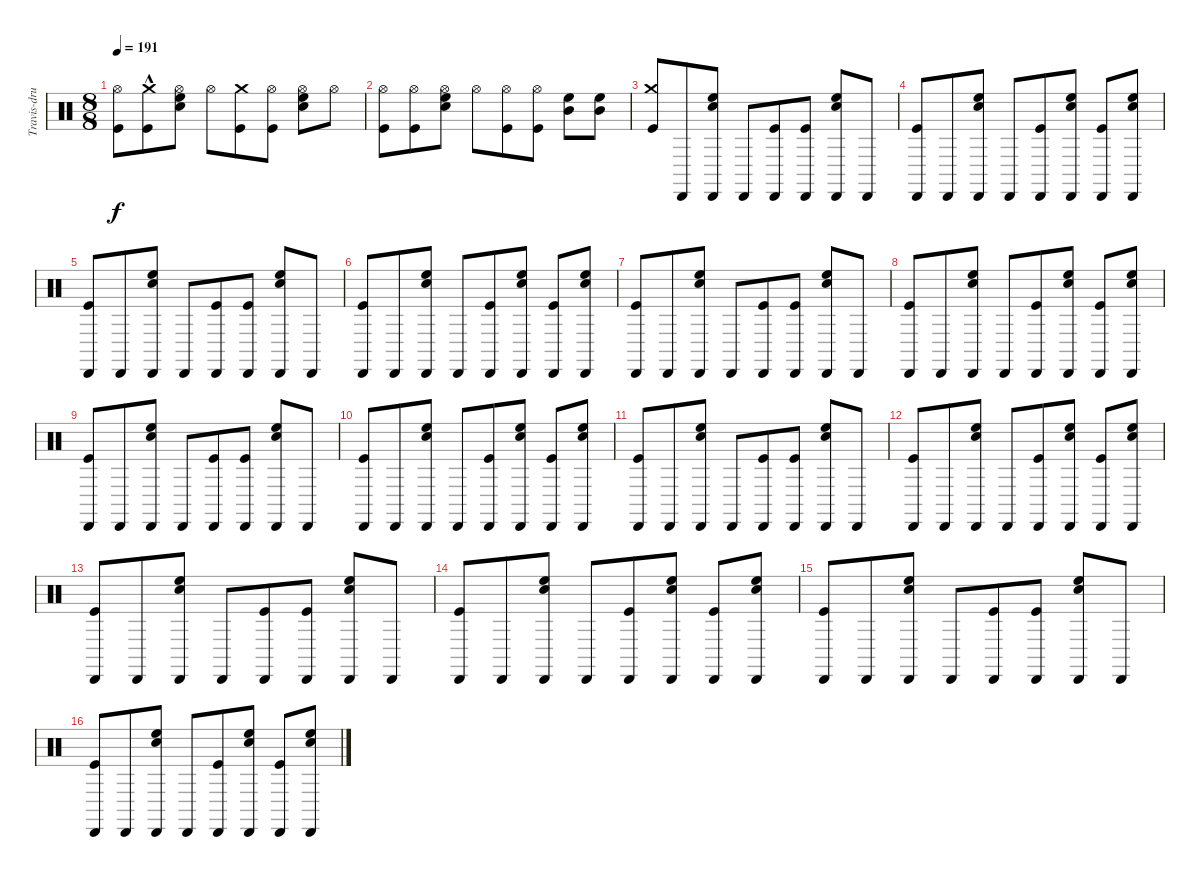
\track ("Travis-drums" "Travis-dru") {instrument percussion}
\staff {score}
\articulation defaults
\ts (8 8)
\tempo 191
\clef neutral
\ks c
("Kick (hit)" "Hi-Hat (open)").8{dy f} ("Crash medium (hit)"{hac} "Kick (hit)").8 ("High Floor Tom (hit)" "Snare (hit) 2" "Hi-Hat (open)").8 "Hi-Hat (open)".8 ("Crash medium (hit)" "Kick (hit)").8 ("Kick (hit)" "Hi-Hat (open)").8 ("High Floor Tom (hit)" "Snare (hit) 2" "Hi-Hat (open)").8 "Hi-Hat (open)".8 |
("Kick (hit)" "Hi-Hat (open)").8 ("Kick (hit)" "Hi-Hat (open)").8 ("High Floor Tom (hit)" "Snare (hit) 2" "Hi-Hat (open)").8 "Hi-Hat (open)".8 ("Kick (hit)" "Hi-Hat (open)").8 ("Kick (hit)" "Hi-Hat (open)").8 ("Mid Tom (hit)" "High Floor Tom (hit)").8 ("High Floor Tom (hit)" "Mid Tom (hit)").8 |
("Crash medium (hit)" "Kick (hit)").8 "Cabasa (hit)".8 ("High Floor Tom (hit)" "Electric Snare (hit)" "Cabasa (hit)").8 "Cabasa (hit)".8 ("Cabasa (hit)" "Kick (hit)").8 ("Kick (hit)" "Cabasa (hit)").8 ("High Floor Tom (hit)" "Electric Snare (hit)" "Cabasa (hit)").8 "Cabasa (hit)".8 |
("Cabasa (hit)" "Kick (hit)").8 "Cabasa (hit)".8 ("High Floor Tom (hit)" "Electric Snare (hit)" "Cabasa (hit)").8 "Cabasa (hit)".8 ("Kick (hit)" "Cabasa (hit)").8 ("High Floor Tom (hit)" "Electric Snare (hit)" "Cabasa (hit)").8 ("Kick (hit)" "Cabasa (hit)").8 ("High Floor Tom (hit)" "Electric Snare (hit)" "Cabasa (hit)").8 |
("Cabasa (hit)" "Kick (hit)").8 "Cabasa (hit)".8 ("High Floor Tom (hit)" "Electric Snare (hit)" "Cabasa (hit)").8 "Cabasa (hit)".8 ("Cabasa (hit)" "Kick (hit)").8 ("Kick (hit)" "Cabasa (hit)").8 ("High Floor Tom (hit)" "Electric Snare (hit)" "Cabasa (hit)").8 "Cabasa (hit)".8 |
("Cabasa (hit)" "Kick (hit)").8 "Cabasa (hit)".8 ("High Floor Tom (hit)" "Electric Snare (hit)" "Cabasa (hit)").8 "Cabasa (hit)".8 ("Kick (hit)" "Cabasa (hit)").8 ("High Floor Tom (hit)" "Electric Snare (hit)" "Cabasa (hit)").8 ("Kick (hit)" "Cabasa (hit)").8 ("High Floor Tom (hit)" "Electric Snare (hit)" "Cabasa (hit)").8 |
("Cabasa (hit)" "Kick (hit)").8 "Cabasa (hit)".8 ("High Floor Tom (hit)" "Electric Snare (hit)" "Cabasa (hit)").8 "Cabasa (hit)".8 ("Cabasa (hit)" "Kick (hit)").8 ("Kick (hit)" "Cabasa (hit)").8 ("High Floor Tom (hit)" "Electric Snare (hit)" "Cabasa (hit)").8 "Cabasa (hit)".8 |
("Cabasa (hit)" "Kick (hit)").8 "Cabasa (hit)".8 ("High Floor Tom (hit)" "Electric Snare (hit)" "Cabasa (hit)").8 "Cabasa (hit)".8 ("Kick (hit)" "Cabasa (hit)").8 ("High Floor Tom (hit)" "Electric Snare (hit)" "Cabasa (hit)").8 ("Kick (hit)" "Cabasa (hit)").8 ("High Floor Tom (hit)" "Electric Snare (hit)" "Cabasa (hit)").8 |
("Cabasa (hit)" "Kick (hit)").8 "Cabasa (hit)".8 ("High Floor Tom (hit)" "Electric Snare (hit)" "Cabasa (hit)").8 "Cabasa (hit)".8 ("Cabasa (hit)" "Kick (hit)").8 ("Kick (hit)" "Cabasa (hit)").8 ("High Floor Tom (hit)" "Electric Snare (hit)" "Cabasa (hit)").8 "Cabasa (hit)".8 |
("Cabasa (hit)" "Kick (hit)").8 "Cabasa (hit)".8 ("High Floor Tom (hit)" "Electric Snare (hit)" "Cabasa (hit)").8 "Cabasa (hit)".8 ("Kick (hit)" "Cabasa (hit)").8 ("High Floor Tom (hit)" "Electric Snare (hit)" "Cabasa (hit)").8 ("Kick (hit)" "Cabasa (hit)").8 ("High Floor Tom (hit)" "Electric Snare (hit)" "Cabasa (hit)").8 |
("Cabasa (hit)" "Kick (hit)").8 "Cabasa (hit)".8 ("High Floor Tom (hit)" "Electric Snare (hit)" "Cabasa (hit)").8 "Cabasa (hit)".8 ("Cabasa (hit)" "Kick (hit)").8 ("Kick (hit)" "Cabasa (hit)").8 ("High Floor Tom (hit)" "Electric Snare (hit)" "Cabasa (hit)").8 "Cabasa (hit)".8 |
("Cabasa (hit)" "Kick (hit)").8 "Cabasa (hit)".8 ("High Floor Tom (hit)" "Electric Snare (hit)" "Cabasa (hit)").8 "Cabasa (hit)".8 ("Kick (hit)" "Cabasa (hit)").8 ("High Floor Tom (hit)" "Electric Snare (hit)" "Cabasa (hit)").8 ("Kick (hit)" "Cabasa (hit)").8 ("High Floor Tom (hit)" "Electric Snare (hit)" "Cabasa (hit)").8 |
("Cabasa (hit)" "Kick (hit)").8 "Cabasa (hit)".8 ("High Floor Tom (hit)" "Electric Snare (hit)" "Cabasa (hit)").8 "Cabasa (hit)".8 ("Cabasa (hit)" "Kick (hit)").8 ("Kick (hit)" "Cabasa (hit)").8 ("High Floor Tom (hit)" "Electric Snare (hit)" "Cabasa (hit)").8 "Cabasa (hit)".8 |
("Cabasa (hit)" "Kick (hit)").8 "Cabasa (hit)".8 ("High Floor Tom (hit)" "Electric Snare (hit)" "Cabasa (hit)").8 "Cabasa (hit)".8 ("Kick (hit)" "Cabasa (hit)").8 ("High Floor Tom (hit)" "Electric Snare (hit)" "Cabasa (hit)").8 ("Kick (hit)" "Cabasa (hit)").8 ("High Floor Tom (hit)" "Electric Snare (hit)" "Cabasa (hit)").8 |
("Cabasa (hit)" "Kick (hit)").8 "Cabasa (hit)".8 ("High Floor Tom (hit)" "Electric Snare (hit)" "Cabasa (hit)").8 "Cabasa (hit)".8 ("Cabasa (hit)" "Kick (hit)").8 ("Kick (hit)" "Cabasa (hit)").8 ("High Floor Tom (hit)" "Electric Snare (hit)" "Cabasa (hit)").8 "Cabasa (hit)".8 |
("Cabasa (hit)" "Kick (hit)").8 "Cabasa (hit)".8 ("High Floor Tom (hit)" "Electric Snare (hit)" "Cabasa (hit)").8 "Cabasa (hit)".8 ("Kick (hit)" "Cabasa (hit)").8 ("High Floor Tom (hit)" "Electric Snare (hit)" "Cabasa (hit)").8 ("Kick (hit)" "Cabasa (hit)").8 ("High Floor Tom (hit)" "Electric Snare (hit)" "Cabasa (hit)").8
